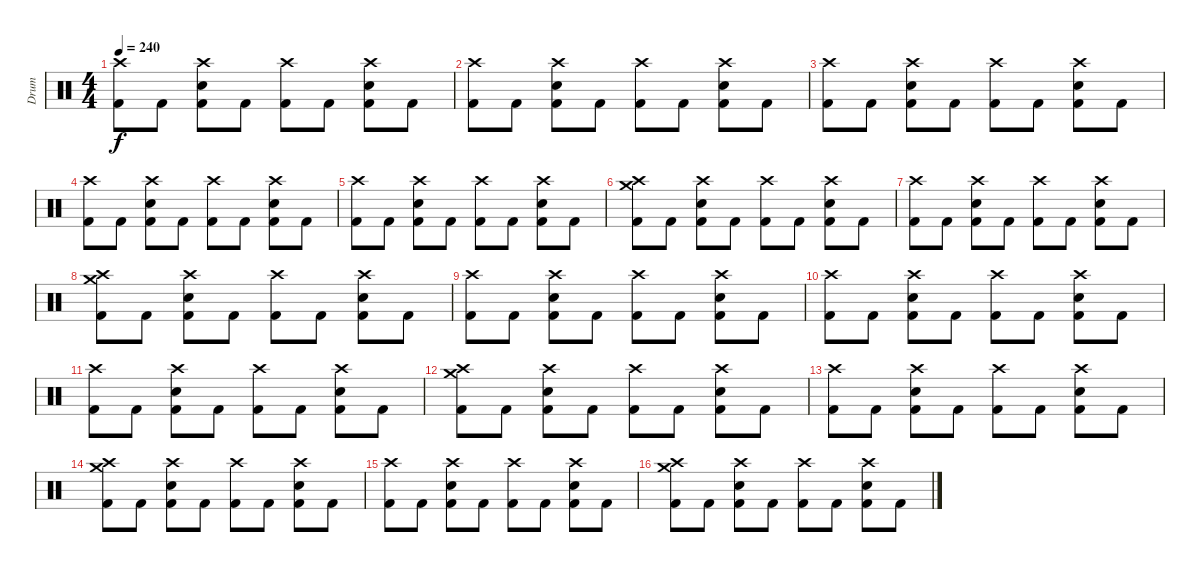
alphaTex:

\track ("Drum" "Drum") {instrument percussion}
\staff {score}
\articulation defaults
\ts (4 4)
\tempo 240
\clef neutral
\ks c
("Crash high (hit)" "Kick (hit) 2").8{dy f} "Kick (hit) 2".8 ("Crash high (hit)" "Kick (hit) 2" "Electric Snare (hit)").8 "Kick (hit) 2".8 ("Crash high (hit)" "Kick (hit) 2").8 "Kick (hit) 2".8 ("Crash high (hit)" "Kick (hit) 2" "Electric Snare (hit)").8 "Kick (hit) 2".8 |
("Crash high (hit)" "Kick (hit) 2").8 "Kick (hit) 2".8 ("Crash high (hit)" "Kick (hit) 2" "Electric Snare (hit)").8 "Kick (hit) 2".8 ("Crash high (hit)" "Kick (hit) 2").8 "Kick (hit) 2".8 ("Crash high (hit)" "Kick (hit) 2" "Electric Snare (hit)").8 "Kick (hit) 2".8 |
("Crash high (hit)" "Kick (hit) 2").8 "Kick (hit) 2".8 ("Crash high (hit)" "Kick (hit) 2" "Electric Snare (hit)").8 "Kick (hit) 2".8 ("Crash high (hit)" "Kick (hit) 2").8 "Kick (hit) 2".8 ("Crash high (hit)" "Kick (hit) 2" "Electric Snare (hit)").8 "Kick (hit) 2".8 |
("Crash high (hit)" "Kick (hit) 2").8 "Kick (hit) 2".8 ("Crash high (hit)" "Kick (hit) 2" "Electric Snare (hit)").8 "Kick (hit) 2".8 ("Crash high (hit)" "Kick (hit) 2").8 "Kick (hit) 2".8 ("Crash high (hit)" "Kick (hit) 2" "Electric Snare (hit)").8 "Kick (hit) 2".8 |
("Crash high (hit)" "Kick (hit) 2").8 "Kick (hit) 2".8 ("Crash high (hit)" "Kick (hit) 2" "Electric Snare (hit)").8 "Kick (hit) 2".8 ("Crash high (hit)" "Kick (hit) 2").8 "Kick (hit) 2".8 ("Crash high (hit)" "Kick (hit) 2" "Electric Snare (hit)").8 "Kick (hit) 2".8 |
("Crash high (hit)" "Kick (hit) 2" "Crash medium (hit)").8 "Kick (hit) 2".8 ("Crash high (hit)" "Kick (hit) 2" "Electric Snare (hit)").8 "Kick (hit) 2".8 ("Crash high (hit)" "Kick (hit) 2").8 "Kick (hit) 2".8 ("Crash high (hit)" "Kick (hit) 2" "Electric Snare (hit)").8 "Kick (hit) 2".8 |
("Crash high (hit)" "Kick (hit) 2").8 "Kick (hit) 2".8 ("Crash high (hit)" "Kick (hit) 2" "Electric Snare (hit)").8 "Kick (hit) 2".8 ("Crash high (hit)" "Kick (hit) 2").8 "Kick (hit) 2".8 ("Crash high (hit)" "Kick (hit) 2" "Electric Snare (hit)").8 "Kick (hit) 2".8 |
("Crash high (hit)" "Kick (hit) 2" "Crash medium (hit)").8 "Kick (hit) 2".8 ("Crash high (hit)" "Kick (hit) 2" "Electric Snare (hit)").8 "Kick (hit) 2".8 ("Crash high (hit)" "Kick (hit) 2").8 "Kick (hit) 2".8 ("Crash high (hit)" "Kick (hit) 2" "Electric Snare (hit)").8 "Kick (hit) 2".8 |
("Crash high (hit)" "Kick (hit) 2").8 "Kick (hit) 2".8 ("Crash high (hit)" "Kick (hit) 2" "Electric Snare (hit)").8 "Kick (hit) 2".8 ("Crash high (hit)" "Kick (hit) 2").8 "Kick (hit) 2".8 ("Crash high (hit)" "Kick (hit) 2" "Electric Snare (hit)").8 "Kick (hit) 2".8 |
("Crash high (hit)" "Kick (hit) 2").8 "Kick (hit) 2".8 ("Crash high (hit)" "Kick (hit) 2" "Electric Snare (hit)").8 "Kick (hit) 2".8 ("Crash high (hit)" "Kick (hit) 2").8 "Kick (hit) 2".8 ("Crash high (hit)" "Kick (hit) 2" "Electric Snare (hit)").8 "Kick (hit) 2".8 |
("Crash high (hit)" "Kick (hit) 2").8 "Kick (hit) 2".8 ("Crash high (hit)" "Kick (hit) 2" "Electric Snare (hit)").8 "Kick (hit) 2".8 ("Crash high (hit)" "Kick (hit) 2").8 "Kick (hit) 2".8 ("Crash high (hit)" "Kick (hit) 2" "Electric Snare (hit)").8 "Kick (hit) 2".8 |
("Crash high (hit)" "Kick (hit) 2" "Crash medium (hit)").8 "Kick (hit) 2".8 ("Crash high (hit)" "Kick (hit) 2" "Electric Snare (hit)").8 "Kick (hit) 2".8 ("Crash high (hit)" "Kick (hit) 2").8 "Kick (hit) 2".8 ("Crash high (hit)" "Kick (hit) 2" "Electric Snare (hit)").8 "Kick (hit) 2".8 |
("Crash high (hit)" "Kick (hit) 2").8 "Kick (hit) 2".8 ("Crash high (hit)" "Kick (hit) 2" "Electric Snare (hit)").8 "Kick (hit) 2".8 ("Crash high (hit)" "Kick (hit) 2").8 "Kick (hit) 2".8 ("Crash high (hit)" "Kick (hit) 2" "Electric Snare (hit)").8 "Kick (hit) 2".8 |
("Crash high (hit)" "Kick (hit) 2" "Crash medium (hit)").8 "Kick (hit) 2".8 ("Crash high (hit)" "Kick (hit) 2" "Electric Snare (hit)").8 "Kick (hit) 2".8 ("Crash high (hit)" "Kick (hit) 2").8 "Kick (hit) 2".8 ("Crash high (hit)" "Kick (hit) 2" "Electric Snare (hit)").8 "Kick (hit) 2".8 |
("Crash high (hit)" "Kick (hit) 2").8 "Kick (hit) 2".8 ("Crash high (hit)" "Kick (hit) 2" "Electric Snare (hit)").8 "Kick (hit) 2".8 ("Crash high (hit)" "Kick (hit) 2").8 "Kick (hit) 2".8 ("Crash high (hit)" "Kick (hit) 2" "Electric Snare (hit)").8 "Kick (hit) 2".8 |
("Crash high (hit)" "Kick (hit) 2" "Crash medium (hit)").8 "Kick (hit) 2".8 ("Crash high (hit)" "Kick (hit) 2" "Electric Snare (hit)").8 "Kick (hit) 2".8 ("Crash high (hit)" "Kick (hit) 2").8 "Kick (hit) 2".8 ("Crash high (hit)" "Kick (hit) 2" "Electric Snare (hit)").8 "Kick (hit) 2".8
